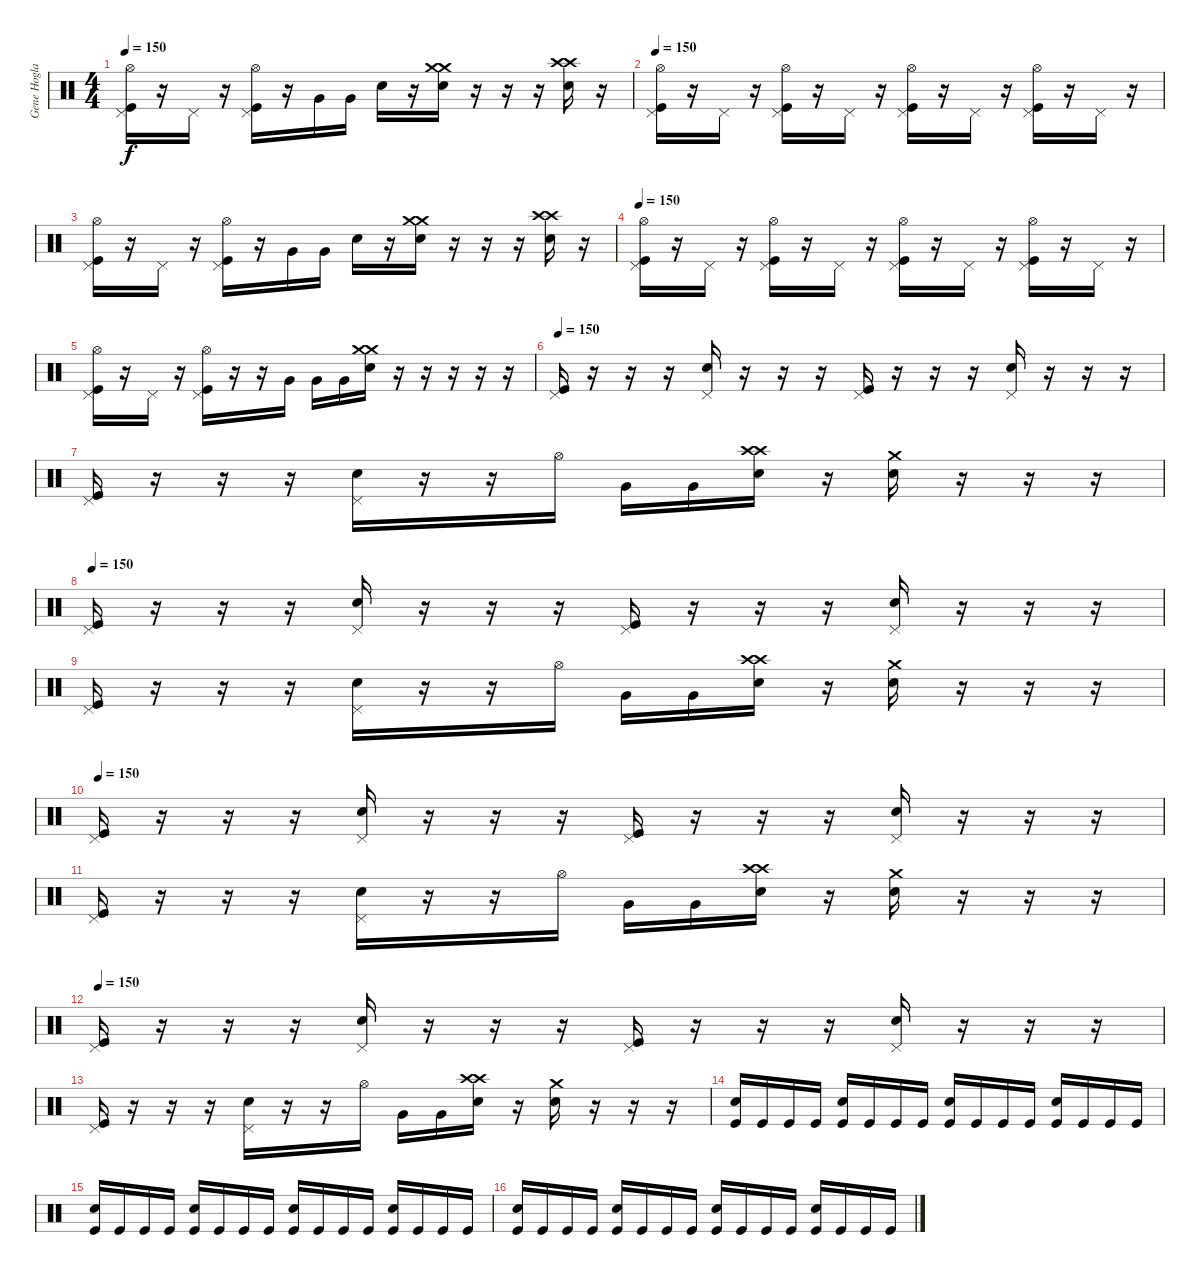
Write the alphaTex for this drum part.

\track ("Gene Hoglan" "Gene Hogla") {instrument percussion}
\staff {score}
\articulation defaults
\ts (4 4)
\tempo 150
\clef neutral
\ks c
("Hi-Hat (open)" "Pedal Hi-Hat (hit)" "Kick (hit)").16{dy f} r.16 "Pedal Hi-Hat (hit)".16 r.16 ("Hi-Hat (open)" "Pedal Hi-Hat (hit)" "Kick (hit)").16 r.16 "Very Low Tom (hit)".16 "Very Low Tom (hit)".16 "Snare (hit) 2".16 r.16 ("Crash medium (hit)" "Crash medium (hit)" "Snare (hit) 2").16 r.16 r.16 r.16 ("Crash high (hit)" "Crash high (hit)" "Snare (hit) 2").16 r.16 |
\tempo 150
("Hi-Hat (open)" "Pedal Hi-Hat (hit)" "Kick (hit)").16 r.16 "Pedal Hi-Hat (hit)".16 r.16 ("Hi-Hat (open)" "Pedal Hi-Hat (hit)" "Kick (hit)").16 r.16 "Pedal Hi-Hat (hit)".16 r.16 ("Hi-Hat (open)" "Pedal Hi-Hat (hit)" "Kick (hit)").16 r.16 "Pedal Hi-Hat (hit)".16 r.16 ("Hi-Hat (open)" "Pedal Hi-Hat (hit)" "Kick (hit)").16 r.16 "Pedal Hi-Hat (hit)".16 r.16 |
("Hi-Hat (open)" "Pedal Hi-Hat (hit)" "Kick (hit)").16 r.16 "Pedal Hi-Hat (hit)".16 r.16 ("Hi-Hat (open)" "Pedal Hi-Hat (hit)" "Kick (hit)").16 r.16 "Very Low Tom (hit)".16 "Very Low Tom (hit)".16 "Snare (hit) 2".16 r.16 ("Crash medium (hit)" "Crash medium (hit)" "Snare (hit) 2").16 r.16 r.16 r.16 ("Crash high (hit)" "Crash high (hit)" "Snare (hit) 2").16 r.16 |
\tempo 150
("Hi-Hat (open)" "Pedal Hi-Hat (hit)" "Kick (hit)").16 r.16 "Pedal Hi-Hat (hit)".16 r.16 ("Hi-Hat (open)" "Pedal Hi-Hat (hit)" "Kick (hit)").16 r.16 "Pedal Hi-Hat (hit)".16 r.16 ("Hi-Hat (open)" "Pedal Hi-Hat (hit)" "Kick (hit)").16 r.16 "Pedal Hi-Hat (hit)".16 r.16 ("Hi-Hat (open)" "Pedal Hi-Hat (hit)" "Kick (hit)").16 r.16 "Pedal Hi-Hat (hit)".16 r.16 |
("Hi-Hat (open)" "Pedal Hi-Hat (hit)" "Kick (hit)").16 r.16 "Pedal Hi-Hat (hit)".16 r.16 ("Hi-Hat (open)" "Pedal Hi-Hat (hit)" "Kick (hit)").16 r.16 r.16 "Very Low Tom (hit)".16 "Very Low Tom (hit)".16 "Very Low Tom (hit)".16 ("Crash medium (hit)" "Crash medium (hit)" "Snare (hit) 2").16 r.16 r.16 r.16 r.16 r.16 |
\tempo 150
("Pedal Hi-Hat (hit)" "Kick (hit)").16 r.16 r.16 r.16 ("Pedal Hi-Hat (hit)" "Snare (hit) 2").16 r.16 r.16 r.16 ("Pedal Hi-Hat (hit)" "Kick (hit)").16 r.16 r.16 r.16 ("Pedal Hi-Hat (hit)" "Snare (hit) 2").16 r.16 r.16 r.16 |
("Pedal Hi-Hat (hit)" "Kick (hit)").16 r.16 r.16 r.16 ("Pedal Hi-Hat (hit)" "Snare (hit) 2").16 r.16 r.16 "Hi-Hat (open)".16 "Very Low Tom (hit)".16 "Very Low Tom (hit)".16 ("Crash high (hit)" "Crash high (hit)" "Snare (hit) 2").16 r.16 ("Crash medium (hit)" "Snare (hit) 2").16 r.16 r.16 r.16 |
\tempo 150
("Pedal Hi-Hat (hit)" "Kick (hit)").16 r.16 r.16 r.16 ("Pedal Hi-Hat (hit)" "Snare (hit) 2").16 r.16 r.16 r.16 ("Pedal Hi-Hat (hit)" "Kick (hit)").16 r.16 r.16 r.16 ("Pedal Hi-Hat (hit)" "Snare (hit) 2").16 r.16 r.16 r.16 |
("Pedal Hi-Hat (hit)" "Kick (hit)").16 r.16 r.16 r.16 ("Pedal Hi-Hat (hit)" "Snare (hit) 2").16 r.16 r.16 "Hi-Hat (open)".16 "Very Low Tom (hit)".16 "Very Low Tom (hit)".16 ("Crash high (hit)" "Crash high (hit)" "Snare (hit) 2").16 r.16 ("Crash medium (hit)" "Snare (hit) 2").16 r.16 r.16 r.16 |
\tempo 150
("Pedal Hi-Hat (hit)" "Kick (hit)").16 r.16 r.16 r.16 ("Pedal Hi-Hat (hit)" "Snare (hit) 2").16 r.16 r.16 r.16 ("Pedal Hi-Hat (hit)" "Kick (hit)").16 r.16 r.16 r.16 ("Pedal Hi-Hat (hit)" "Snare (hit) 2").16 r.16 r.16 r.16 |
("Pedal Hi-Hat (hit)" "Kick (hit)").16 r.16 r.16 r.16 ("Pedal Hi-Hat (hit)" "Snare (hit) 2").16 r.16 r.16 "Hi-Hat (open)".16 "Very Low Tom (hit)".16 "Very Low Tom (hit)".16 ("Crash high (hit)" "Crash high (hit)" "Snare (hit) 2").16 r.16 ("Crash medium (hit)" "Snare (hit) 2").16 r.16 r.16 r.16 |
\tempo 150
("Pedal Hi-Hat (hit)" "Kick (hit)").16 r.16 r.16 r.16 ("Pedal Hi-Hat (hit)" "Snare (hit) 2").16 r.16 r.16 r.16 ("Pedal Hi-Hat (hit)" "Kick (hit)").16 r.16 r.16 r.16 ("Pedal Hi-Hat (hit)" "Snare (hit) 2").16 r.16 r.16 r.16 |
("Pedal Hi-Hat (hit)" "Kick (hit)").16 r.16 r.16 r.16 ("Pedal Hi-Hat (hit)" "Snare (hit) 2").16 r.16 r.16 "Hi-Hat (open)".16 "Very Low Tom (hit)".16 "Very Low Tom (hit)".16 ("Crash high (hit)" "Crash high (hit)" "Snare (hit) 2").16 r.16 ("Crash medium (hit)" "Snare (hit) 2").16 r.16 r.16 r.16 |
("Snare (hit) 2" "Kick (hit)").16 "Kick (hit)".16 "Kick (hit)".16 "Kick (hit)".16 ("Snare (hit) 2" "Kick (hit)").16 "Kick (hit)".16 "Kick (hit)".16 "Kick (hit)".16 ("Snare (hit) 2" "Kick (hit)").16 "Kick (hit)".16 "Kick (hit)".16 "Kick (hit)".16 ("Snare (hit) 2" "Kick (hit)").16 "Kick (hit)".16 "Kick (hit)".16 "Kick (hit)".16 |
("Snare (hit) 2" "Kick (hit)").16 "Kick (hit)".16 "Kick (hit)".16 "Kick (hit)".16 ("Snare (hit) 2" "Kick (hit)").16 "Kick (hit)".16 "Kick (hit)".16 "Kick (hit)".16 ("Snare (hit) 2" "Kick (hit)").16 "Kick (hit)".16 "Kick (hit)".16 "Kick (hit)".16 ("Snare (hit) 2" "Kick (hit)").16 "Kick (hit)".16 "Kick (hit)".16 "Kick (hit)".16 |
("Snare (hit) 2" "Kick (hit)").16 "Kick (hit)".16 "Kick (hit)".16 "Kick (hit)".16 ("Snare (hit) 2" "Kick (hit)").16 "Kick (hit)".16 "Kick (hit)".16 "Kick (hit)".16 ("Snare (hit) 2" "Kick (hit)").16 "Kick (hit)".16 "Kick (hit)".16 "Kick (hit)".16 ("Snare (hit) 2" "Kick (hit)").16 "Kick (hit)".16 "Kick (hit)".16 "Kick (hit)".16
